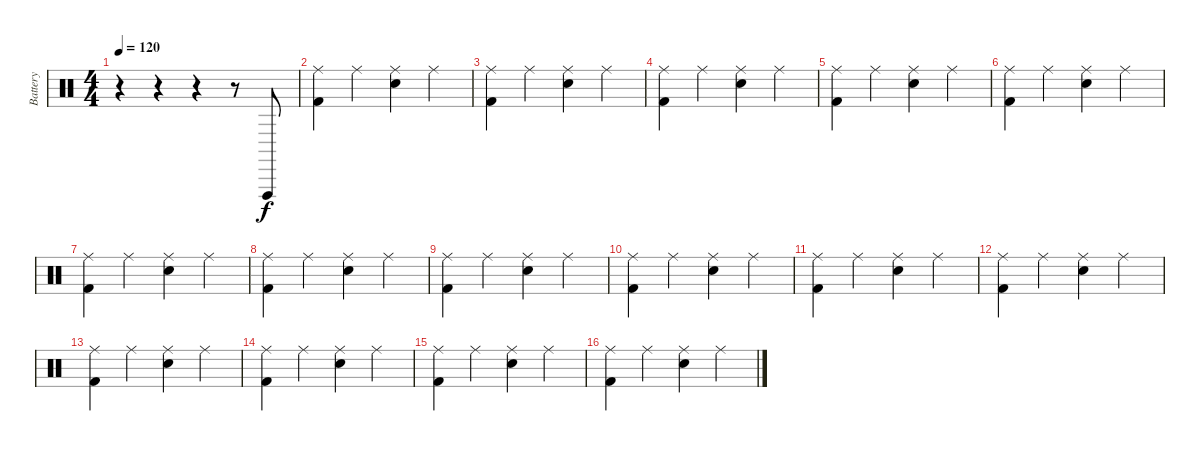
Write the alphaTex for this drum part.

\track ("Battery" "Battery") {instrument percussion}
\staff {score}
\articulation defaults
\ts (4 4)
\tempo 120
\clef neutral
\ks c
r.4{dy f} r.4 r.4 r.8 "Vibraslap (hit)".8 |
("Ride (middle)" "Kick (hit) 2").4 "Ride (middle)".4 ("Ride (middle)" "Electric Snare (hit)").4 "Ride (middle)".4 |
("Ride (middle)" "Kick (hit) 2").4 "Ride (middle)".4 ("Ride (middle)" "Electric Snare (hit)").4 "Ride (middle)".4 |
("Ride (middle)" "Kick (hit) 2").4 "Ride (middle)".4 ("Ride (middle)" "Electric Snare (hit)").4 "Ride (middle)".4 |
("Ride (middle)" "Kick (hit) 2").4 "Ride (middle)".4 ("Ride (middle)" "Electric Snare (hit)").4 "Ride (middle)".4 |
("Ride (middle)" "Kick (hit) 2").4 "Ride (middle)".4 ("Ride (middle)" "Electric Snare (hit)").4 "Ride (middle)".4 |
("Ride (middle)" "Kick (hit) 2").4 "Ride (middle)".4 ("Ride (middle)" "Electric Snare (hit)").4 "Ride (middle)".4 |
("Ride (middle)" "Kick (hit) 2").4 "Ride (middle)".4 ("Ride (middle)" "Electric Snare (hit)").4 "Ride (middle)".4 |
("Ride (middle)" "Kick (hit) 2").4 "Ride (middle)".4 ("Ride (middle)" "Electric Snare (hit)").4 "Ride (middle)".4 |
("Ride (middle)" "Kick (hit) 2").4 "Ride (middle)".4 ("Ride (middle)" "Electric Snare (hit)").4 "Ride (middle)".4 |
("Ride (middle)" "Kick (hit) 2").4 "Ride (middle)".4 ("Ride (middle)" "Electric Snare (hit)").4 "Ride (middle)".4 |
("Ride (middle)" "Kick (hit) 2").4 "Ride (middle)".4 ("Ride (middle)" "Electric Snare (hit)").4 "Ride (middle)".4 |
("Ride (middle)" "Kick (hit) 2").4 "Ride (middle)".4 ("Ride (middle)" "Electric Snare (hit)").4 "Ride (middle)".4 |
("Ride (middle)" "Kick (hit) 2").4 "Ride (middle)".4 ("Ride (middle)" "Electric Snare (hit)").4 "Ride (middle)".4 |
("Ride (middle)" "Kick (hit) 2").4 "Ride (middle)".4 ("Ride (middle)" "Electric Snare (hit)").4 "Ride (middle)".4 |
("Ride (middle)" "Kick (hit) 2").4 "Ride (middle)".4 ("Ride (middle)" "Electric Snare (hit)").4 "Ride (middle)".4
